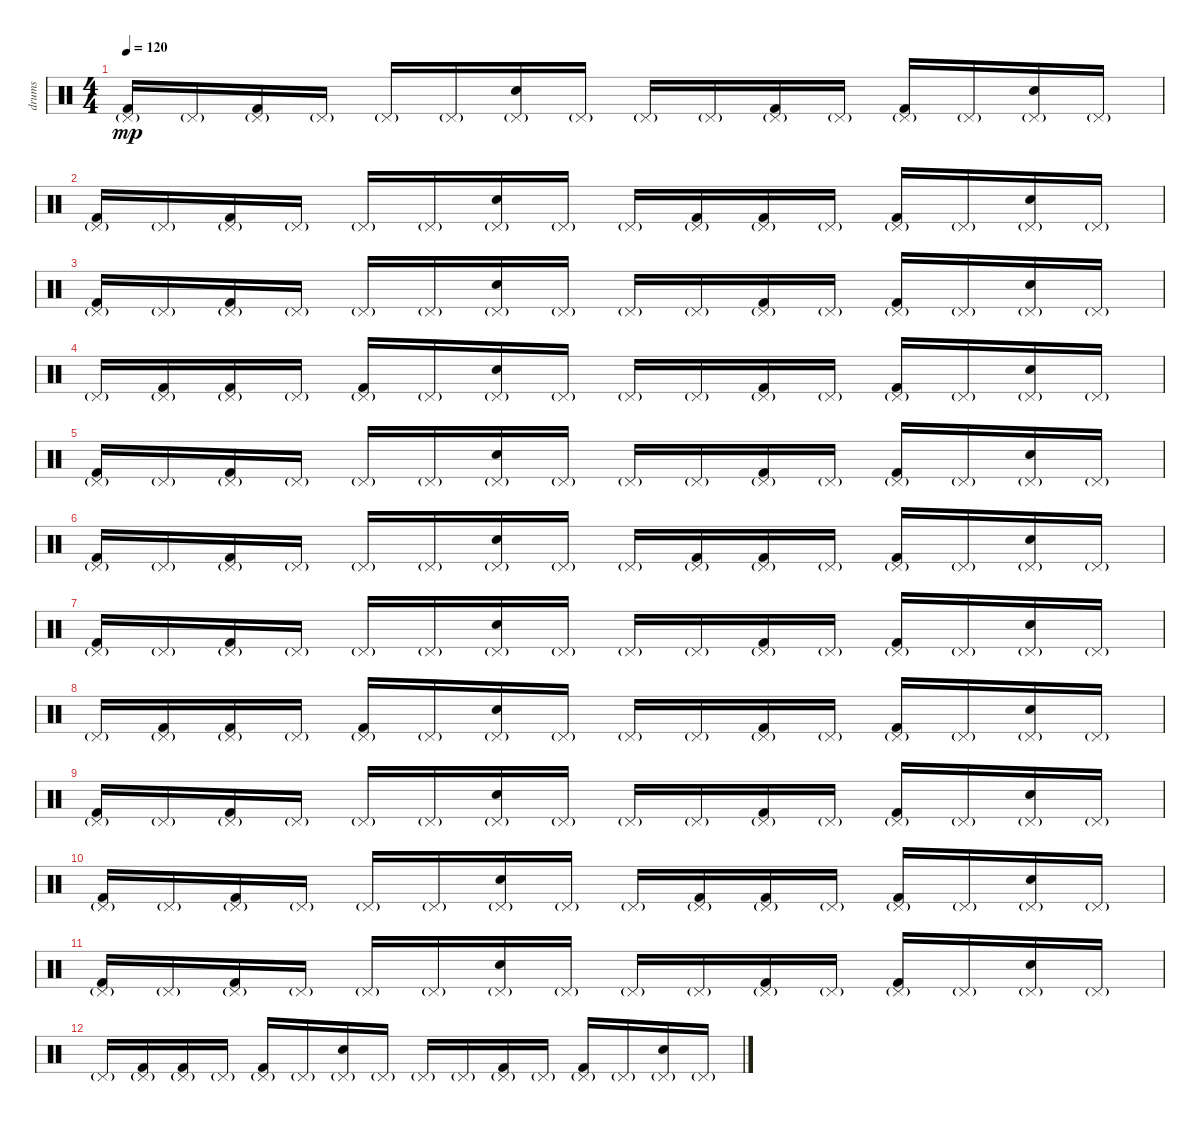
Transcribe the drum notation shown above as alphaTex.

\track ("drums" "drums") {instrument percussion}
\staff {score}
\articulation defaults
\ts (4 4)
\tempo 120
\clef neutral
\ks c
("Kick (hit) 2" "Pedal Hi-Hat (hit)"{g}).16{dy mp} "Pedal Hi-Hat (hit)"{g}.16 ("Kick (hit) 2" "Pedal Hi-Hat (hit)"{g}).16 "Pedal Hi-Hat (hit)"{g}.16 "Pedal Hi-Hat (hit)"{g}.16 "Pedal Hi-Hat (hit)"{g}.16 ("Hand Clap (hit)" "Pedal Hi-Hat (hit)"{g}).16 "Pedal Hi-Hat (hit)"{g}.16 "Pedal Hi-Hat (hit)"{g}.16 "Pedal Hi-Hat (hit)"{g}.16 ("Kick (hit) 2" "Pedal Hi-Hat (hit)"{g}).16 "Pedal Hi-Hat (hit)"{g}.16 ("Kick (hit) 2" "Pedal Hi-Hat (hit)"{g}).16 "Pedal Hi-Hat (hit)"{g}.16 ("Hand Clap (hit)" "Pedal Hi-Hat (hit)"{g}).16 "Pedal Hi-Hat (hit)"{g}.16 |
("Kick (hit) 2" "Pedal Hi-Hat (hit)"{g}).16 "Pedal Hi-Hat (hit)"{g}.16 ("Kick (hit) 2" "Pedal Hi-Hat (hit)"{g}).16 "Pedal Hi-Hat (hit)"{g}.16 "Pedal Hi-Hat (hit)"{g}.16 "Pedal Hi-Hat (hit)"{g}.16 ("Hand Clap (hit)" "Pedal Hi-Hat (hit)"{g}).16 "Pedal Hi-Hat (hit)"{g}.16 "Pedal Hi-Hat (hit)"{g}.16 ("Kick (hit) 2" "Pedal Hi-Hat (hit)"{g}).16 ("Kick (hit) 2" "Pedal Hi-Hat (hit)"{g}).16 "Pedal Hi-Hat (hit)"{g}.16 ("Kick (hit) 2" "Pedal Hi-Hat (hit)"{g}).16 "Pedal Hi-Hat (hit)"{g}.16 ("Hand Clap (hit)" "Pedal Hi-Hat (hit)"{g}).16 "Pedal Hi-Hat (hit)"{g}.16 |
("Kick (hit) 2" "Pedal Hi-Hat (hit)"{g}).16 "Pedal Hi-Hat (hit)"{g}.16 ("Kick (hit) 2" "Pedal Hi-Hat (hit)"{g}).16 "Pedal Hi-Hat (hit)"{g}.16 "Pedal Hi-Hat (hit)"{g}.16 "Pedal Hi-Hat (hit)"{g}.16 ("Hand Clap (hit)" "Pedal Hi-Hat (hit)"{g}).16 "Pedal Hi-Hat (hit)"{g}.16 "Pedal Hi-Hat (hit)"{g}.16 "Pedal Hi-Hat (hit)"{g}.16 ("Kick (hit) 2" "Pedal Hi-Hat (hit)"{g}).16 "Pedal Hi-Hat (hit)"{g}.16 ("Kick (hit) 2" "Pedal Hi-Hat (hit)"{g}).16 "Pedal Hi-Hat (hit)"{g}.16 ("Hand Clap (hit)" "Pedal Hi-Hat (hit)"{g}).16 "Pedal Hi-Hat (hit)"{g}.16 |
"Pedal Hi-Hat (hit)"{g}.16 ("Kick (hit) 2" "Pedal Hi-Hat (hit)"{g}).16 ("Kick (hit) 2" "Pedal Hi-Hat (hit)"{g}).16 "Pedal Hi-Hat (hit)"{g}.16 ("Kick (hit) 2" "Pedal Hi-Hat (hit)"{g}).16 "Pedal Hi-Hat (hit)"{g}.16 ("Hand Clap (hit)" "Pedal Hi-Hat (hit)"{g}).16 "Pedal Hi-Hat (hit)"{g}.16 "Pedal Hi-Hat (hit)"{g}.16 "Pedal Hi-Hat (hit)"{g}.16 ("Kick (hit) 2" "Pedal Hi-Hat (hit)"{g}).16 "Pedal Hi-Hat (hit)"{g}.16 ("Kick (hit) 2" "Pedal Hi-Hat (hit)"{g}).16 "Pedal Hi-Hat (hit)"{g}.16 ("Hand Clap (hit)" "Pedal Hi-Hat (hit)"{g}).16 "Pedal Hi-Hat (hit)"{g}.16 |
("Kick (hit) 2" "Pedal Hi-Hat (hit)"{g}).16 "Pedal Hi-Hat (hit)"{g}.16 ("Kick (hit) 2" "Pedal Hi-Hat (hit)"{g}).16 "Pedal Hi-Hat (hit)"{g}.16 "Pedal Hi-Hat (hit)"{g}.16 "Pedal Hi-Hat (hit)"{g}.16 ("Hand Clap (hit)" "Pedal Hi-Hat (hit)"{g}).16 "Pedal Hi-Hat (hit)"{g}.16 "Pedal Hi-Hat (hit)"{g}.16 "Pedal Hi-Hat (hit)"{g}.16 ("Kick (hit) 2" "Pedal Hi-Hat (hit)"{g}).16 "Pedal Hi-Hat (hit)"{g}.16 ("Kick (hit) 2" "Pedal Hi-Hat (hit)"{g}).16 "Pedal Hi-Hat (hit)"{g}.16 ("Hand Clap (hit)" "Pedal Hi-Hat (hit)"{g}).16 "Pedal Hi-Hat (hit)"{g}.16 |
("Kick (hit) 2" "Pedal Hi-Hat (hit)"{g}).16 "Pedal Hi-Hat (hit)"{g}.16 ("Kick (hit) 2" "Pedal Hi-Hat (hit)"{g}).16 "Pedal Hi-Hat (hit)"{g}.16 "Pedal Hi-Hat (hit)"{g}.16 "Pedal Hi-Hat (hit)"{g}.16 ("Hand Clap (hit)" "Pedal Hi-Hat (hit)"{g}).16 "Pedal Hi-Hat (hit)"{g}.16 "Pedal Hi-Hat (hit)"{g}.16 ("Kick (hit) 2" "Pedal Hi-Hat (hit)"{g}).16 ("Kick (hit) 2" "Pedal Hi-Hat (hit)"{g}).16 "Pedal Hi-Hat (hit)"{g}.16 ("Kick (hit) 2" "Pedal Hi-Hat (hit)"{g}).16 "Pedal Hi-Hat (hit)"{g}.16 ("Hand Clap (hit)" "Pedal Hi-Hat (hit)"{g}).16 "Pedal Hi-Hat (hit)"{g}.16 |
("Kick (hit) 2" "Pedal Hi-Hat (hit)"{g}).16 "Pedal Hi-Hat (hit)"{g}.16 ("Kick (hit) 2" "Pedal Hi-Hat (hit)"{g}).16 "Pedal Hi-Hat (hit)"{g}.16 "Pedal Hi-Hat (hit)"{g}.16 "Pedal Hi-Hat (hit)"{g}.16 ("Hand Clap (hit)" "Pedal Hi-Hat (hit)"{g}).16 "Pedal Hi-Hat (hit)"{g}.16 "Pedal Hi-Hat (hit)"{g}.16 "Pedal Hi-Hat (hit)"{g}.16 ("Kick (hit) 2" "Pedal Hi-Hat (hit)"{g}).16 "Pedal Hi-Hat (hit)"{g}.16 ("Kick (hit) 2" "Pedal Hi-Hat (hit)"{g}).16 "Pedal Hi-Hat (hit)"{g}.16 ("Hand Clap (hit)" "Pedal Hi-Hat (hit)"{g}).16 "Pedal Hi-Hat (hit)"{g}.16 |
"Pedal Hi-Hat (hit)"{g}.16 ("Kick (hit) 2" "Pedal Hi-Hat (hit)"{g}).16 ("Kick (hit) 2" "Pedal Hi-Hat (hit)"{g}).16 "Pedal Hi-Hat (hit)"{g}.16 ("Kick (hit) 2" "Pedal Hi-Hat (hit)"{g}).16 "Pedal Hi-Hat (hit)"{g}.16 ("Hand Clap (hit)" "Pedal Hi-Hat (hit)"{g}).16 "Pedal Hi-Hat (hit)"{g}.16 "Pedal Hi-Hat (hit)"{g}.16 "Pedal Hi-Hat (hit)"{g}.16 ("Kick (hit) 2" "Pedal Hi-Hat (hit)"{g}).16 "Pedal Hi-Hat (hit)"{g}.16 ("Kick (hit) 2" "Pedal Hi-Hat (hit)"{g}).16 "Pedal Hi-Hat (hit)"{g}.16 ("Hand Clap (hit)" "Pedal Hi-Hat (hit)"{g}).16 "Pedal Hi-Hat (hit)"{g}.16 |
("Kick (hit) 2" "Pedal Hi-Hat (hit)"{g}).16{volume 0} "Pedal Hi-Hat (hit)"{g}.16 ("Kick (hit) 2" "Pedal Hi-Hat (hit)"{g}).16 "Pedal Hi-Hat (hit)"{g}.16 "Pedal Hi-Hat (hit)"{g}.16 "Pedal Hi-Hat (hit)"{g}.16 ("Hand Clap (hit)" "Pedal Hi-Hat (hit)"{g}).16 "Pedal Hi-Hat (hit)"{g}.16 "Pedal Hi-Hat (hit)"{g}.16 "Pedal Hi-Hat (hit)"{g}.16 ("Kick (hit) 2" "Pedal Hi-Hat (hit)"{g}).16 "Pedal Hi-Hat (hit)"{g}.16 ("Kick (hit) 2" "Pedal Hi-Hat (hit)"{g}).16 "Pedal Hi-Hat (hit)"{g}.16 ("Hand Clap (hit)" "Pedal Hi-Hat (hit)"{g}).16 "Pedal Hi-Hat (hit)"{g}.16 |
("Kick (hit) 2" "Pedal Hi-Hat (hit)"{g}).16 "Pedal Hi-Hat (hit)"{g}.16 ("Kick (hit) 2" "Pedal Hi-Hat (hit)"{g}).16 "Pedal Hi-Hat (hit)"{g}.16 "Pedal Hi-Hat (hit)"{g}.16 "Pedal Hi-Hat (hit)"{g}.16 ("Hand Clap (hit)" "Pedal Hi-Hat (hit)"{g}).16 "Pedal Hi-Hat (hit)"{g}.16 "Pedal Hi-Hat (hit)"{g}.16 ("Kick (hit) 2" "Pedal Hi-Hat (hit)"{g}).16 ("Kick (hit) 2" "Pedal Hi-Hat (hit)"{g}).16 "Pedal Hi-Hat (hit)"{g}.16 ("Kick (hit) 2" "Pedal Hi-Hat (hit)"{g}).16 "Pedal Hi-Hat (hit)"{g}.16 ("Hand Clap (hit)" "Pedal Hi-Hat (hit)"{g}).16 "Pedal Hi-Hat (hit)"{g}.16 |
("Kick (hit) 2" "Pedal Hi-Hat (hit)"{g}).16 "Pedal Hi-Hat (hit)"{g}.16 ("Kick (hit) 2" "Pedal Hi-Hat (hit)"{g}).16 "Pedal Hi-Hat (hit)"{g}.16 "Pedal Hi-Hat (hit)"{g}.16 "Pedal Hi-Hat (hit)"{g}.16 ("Hand Clap (hit)" "Pedal Hi-Hat (hit)"{g}).16 "Pedal Hi-Hat (hit)"{g}.16 "Pedal Hi-Hat (hit)"{g}.16 "Pedal Hi-Hat (hit)"{g}.16 ("Kick (hit) 2" "Pedal Hi-Hat (hit)"{g}).16 "Pedal Hi-Hat (hit)"{g}.16 ("Kick (hit) 2" "Pedal Hi-Hat (hit)"{g}).16 "Pedal Hi-Hat (hit)"{g}.16 ("Hand Clap (hit)" "Pedal Hi-Hat (hit)"{g}).16 "Pedal Hi-Hat (hit)"{g}.16 |
"Pedal Hi-Hat (hit)"{g}.16 ("Kick (hit) 2" "Pedal Hi-Hat (hit)"{g}).16 ("Kick (hit) 2" "Pedal Hi-Hat (hit)"{g}).16 "Pedal Hi-Hat (hit)"{g}.16 ("Kick (hit) 2" "Pedal Hi-Hat (hit)"{g}).16 "Pedal Hi-Hat (hit)"{g}.16 ("Hand Clap (hit)" "Pedal Hi-Hat (hit)"{g}).16 "Pedal Hi-Hat (hit)"{g}.16 "Pedal Hi-Hat (hit)"{g}.16 "Pedal Hi-Hat (hit)"{g}.16 ("Kick (hit) 2" "Pedal Hi-Hat (hit)"{g}).16 "Pedal Hi-Hat (hit)"{g}.16 ("Kick (hit) 2" "Pedal Hi-Hat (hit)"{g}).16 "Pedal Hi-Hat (hit)"{g}.16 ("Hand Clap (hit)" "Pedal Hi-Hat (hit)"{g}).16 "Pedal Hi-Hat (hit)"{g}.16
